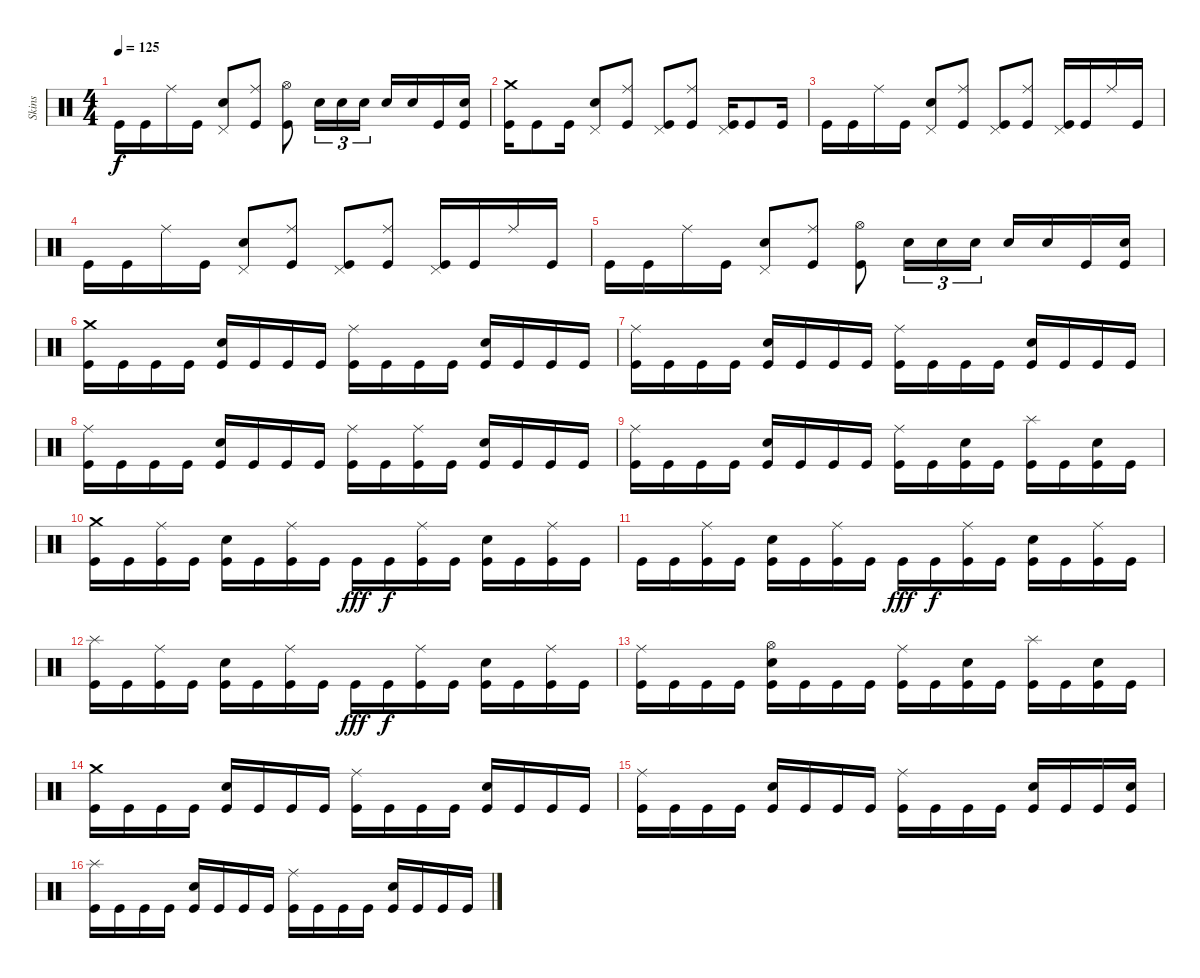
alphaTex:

\track ("Skins" "Skins") {instrument percussion}
\staff {score}
\articulation defaults
\ts (4 4)
\tempo 125
\clef neutral
\ks c "Kick (hit)".16{dy f} "Kick (hit)".16 "Ride (middle)".16 "Kick (hit)".16
("Pedal Hi-Hat (hit)" "Electric Snare (hit)").8 ("Ride (middle)" "Kick (hit)").8 ("Hi-Hat (open)" "Kick (hit)").8 "Electric Snare (hit)".16{tu (3 2)} "Electric Snare (hit)".16{tu (3 2)} "Electric Snare (hit)".16{tu (3 2)} "Snare (hit) 2".16 "Snare (hit) 2".16 "Kick (hit)".16 ("Snare (hit) 2" "Kick (hit)").16 |
("Crash medium (hit)" "Kick (hit)").16 "Kick (hit)".8 "Kick (hit)".16 ("Pedal Hi-Hat (hit)" "Electric Snare (hit)").8 ("Ride (middle)" "Kick (hit)").8 ("Pedal Hi-Hat (hit)" "Kick (hit)").8 ("Ride (middle)" "Kick (hit)").8 ("Pedal Hi-Hat (hit)" "Kick (hit)").16 "Kick (hit)".8 "Kick (hit)".16 |
"Kick (hit)".16 "Kick (hit)".16 "Ride (middle)".16 "Kick (hit)".16 ("Pedal Hi-Hat (hit)" "Electric Snare (hit)").8 ("Ride (middle)" "Kick (hit)").8 ("Pedal Hi-Hat (hit)" "Kick (hit)").8 ("Ride (middle)" "Kick (hit)").8 ("Pedal Hi-Hat (hit)" "Kick (hit)").16 "Kick (hit)".16 "Ride (middle)".16 "Kick (hit)".16 |
"Kick (hit)".16 "Kick (hit)".16 "Ride (middle)".16 "Kick (hit)".16 ("Pedal Hi-Hat (hit)" "Electric Snare (hit)").8 ("Ride (middle)" "Kick (hit)").8 ("Pedal Hi-Hat (hit)" "Kick (hit)").8 ("Ride (middle)" "Kick (hit)").8 ("Pedal Hi-Hat (hit)" "Kick (hit)").16 "Kick (hit)".16 "Ride (middle)".16 "Kick (hit)".16 |
"Kick (hit)".16 "Kick (hit)".16 "Ride (middle)".16 "Kick (hit)".16 ("Pedal Hi-Hat (hit)" "Electric Snare (hit)").8 ("Ride (middle)" "Kick (hit)").8 ("Hi-Hat (open)" "Kick (hit)").8 "Electric Snare (hit)".16{tu (3 2)} "Electric Snare (hit)".16{tu (3 2)} "Electric Snare (hit)".16{tu (3 2)} "Snare (hit) 2".16 "Snare (hit) 2".16 "Kick (hit)".16 ("Snare (hit) 2" "Kick (hit)").16 |
("Crash medium (hit)" "Kick (hit)").16 "Kick (hit)".16 "Kick (hit)".16 "Kick (hit)".16 ("Electric Snare (hit)" "Kick (hit)").16 "Kick (hit)".16 "Kick (hit)".16 "Kick (hit)".16 ("Ride (middle)" "Kick (hit)").16 "Kick (hit)".16 "Kick (hit)".16 "Kick (hit)".16 ("Electric Snare (hit)" "Kick (hit)").16 "Kick (hit)".16 "Kick (hit)".16 "Kick (hit)".16 |
("Ride (middle)" "Kick (hit)").16 "Kick (hit)".16 "Kick (hit)".16 "Kick (hit)".16 ("Electric Snare (hit)" "Kick (hit)").16 "Kick (hit)".16 "Kick (hit)".16 "Kick (hit)".16 ("Ride (middle)" "Kick (hit)").16 "Kick (hit)".16 "Kick (hit)".16 "Kick (hit)".16 ("Electric Snare (hit)" "Kick (hit)").16 "Kick (hit)".16 "Kick (hit)".16 "Kick (hit)".16 |
("Ride (middle)" "Kick (hit)").16 "Kick (hit)".16 "Kick (hit)".16 "Kick (hit)".16 ("Electric Snare (hit)" "Kick (hit)").16 "Kick (hit)".16 "Kick (hit)".16 "Kick (hit)".16 ("Ride (middle)" "Kick (hit)").16 "Kick (hit)".16 ("Ride (middle)" "Kick (hit)").16 "Kick (hit)".16 ("Electric Snare (hit)" "Kick (hit)").16 "Kick (hit)".16 "Kick (hit)".16 "Kick (hit)".16 |
("Ride (middle)" "Kick (hit)").16 "Kick (hit)".16 "Kick (hit)".16 "Kick (hit)".16 ("Electric Snare (hit)" "Kick (hit)").16 "Kick (hit)".16 "Kick (hit)".16 "Kick (hit)".16 ("Ride (middle)" "Kick (hit)").16 "Kick (hit)".16 ("Snare (hit) 2" "Kick (hit)").16 "Kick (hit)".16 ("Splash (hit)" "Kick (hit)").16 "Kick (hit)".16 ("Snare (hit) 2" "Kick (hit)").16 "Kick (hit)".16 |
("Crash medium (hit)" "Kick (hit)").16 "Kick (hit)".16 ("Ride (middle)" "Kick (hit)").16 "Kick (hit)".16 ("Snare (hit) 2" "Kick (hit)").16 "Kick (hit)".16 ("Ride (middle)" "Kick (hit)").16 "Kick (hit)".16 "Kick (hit)".16{dy fff} "Kick (hit)".16{dy f} ("Ride (middle)" "Kick (hit)").16 "Kick (hit)".16 ("Snare (hit) 2" "Kick (hit)").16 "Kick (hit)".16 ("Ride (middle)" "Kick (hit)").16 "Kick (hit)".16 |
"Kick (hit)".16 "Kick (hit)".16 ("Ride (middle)" "Kick (hit)").16 "Kick (hit)".16 ("Snare (hit) 2" "Kick (hit)").16 "Kick (hit)".16 ("Ride (middle)" "Kick (hit)").16 "Kick (hit)".16 "Kick (hit)".16{dy fff} "Kick (hit)".16{dy f} ("Ride (middle)" "Kick (hit)").16 "Kick (hit)".16 ("Snare (hit) 2" "Kick (hit)").16 "Kick (hit)".16 ("Ride (middle)" "Kick (hit)").16 "Kick (hit)".16 |
("Splash (hit)" "Kick (hit)").16 "Kick (hit)".16 ("Ride (middle)" "Kick (hit)").16 "Kick (hit)".16 ("Snare (hit) 2" "Kick (hit)").16 "Kick (hit)".16 ("Ride (middle)" "Kick (hit)").16 "Kick (hit)".16 "Kick (hit)".16{dy fff} "Kick (hit)".16{dy f} ("Ride (middle)" "Kick (hit)").16 "Kick (hit)".16 ("Snare (hit) 2" "Kick (hit)").16 "Kick (hit)".16 ("Ride (middle)" "Kick (hit)").16 "Kick (hit)".16 |
("Ride (middle)" "Kick (hit)").16 "Kick (hit)".16 "Kick (hit)".16 "Kick (hit)".16 ("Hi-Hat (open)" "Electric Snare (hit)" "Kick (hit)").16 "Kick (hit)".16 "Kick (hit)".16 "Kick (hit)".16 ("Ride (middle)" "Kick (hit)").16 "Kick (hit)".16 ("Snare (hit) 2" "Kick (hit)").16 "Kick (hit)".16 ("Splash (hit)" "Kick (hit)").16 "Kick (hit)".16 ("Snare (hit) 2" "Kick (hit)").16 "Kick (hit)".16 |
("Crash medium (hit)" "Kick (hit)").16 "Kick (hit)".16 "Kick (hit)".16 "Kick (hit)".16 ("Electric Snare (hit)" "Kick (hit)").16 "Kick (hit)".16 "Kick (hit)".16 "Kick (hit)".16 ("Ride (middle)" "Kick (hit)").16 "Kick (hit)".16 "Kick (hit)".16 "Kick (hit)".16 ("Electric Snare (hit)" "Kick (hit)").16 "Kick (hit)".16 "Kick (hit)".16 "Kick (hit)".16 |
("Ride (middle)" "Kick (hit)").16 "Kick (hit)".16 "Kick (hit)".16 "Kick (hit)".16 ("Electric Snare (hit)" "Kick (hit)").16 "Kick (hit)".16 "Kick (hit)".16 "Kick (hit)".16 ("Ride (middle)" "Kick (hit)").16 "Kick (hit)".16 "Kick (hit)".16 "Kick (hit)".16 ("Electric Snare (hit)" "Kick (hit)").16 "Kick (hit)".16 "Kick (hit)".16 ("Electric Snare (hit)" "Kick (hit)").16 |
("Splash (hit)" "Kick (hit)").16 "Kick (hit)".16 "Kick (hit)".16 "Kick (hit)".16 ("Electric Snare (hit)" "Kick (hit)").16 "Kick (hit)".16 "Kick (hit)".16 "Kick (hit)".16 ("Ride (middle)" "Kick (hit)").16 "Kick (hit)".16 "Kick (hit)".16 "Kick (hit)".16 ("Electric Snare (hit)" "Kick (hit)").16 "Kick (hit)".16 "Kick (hit)".16 "Kick (hit)".16
